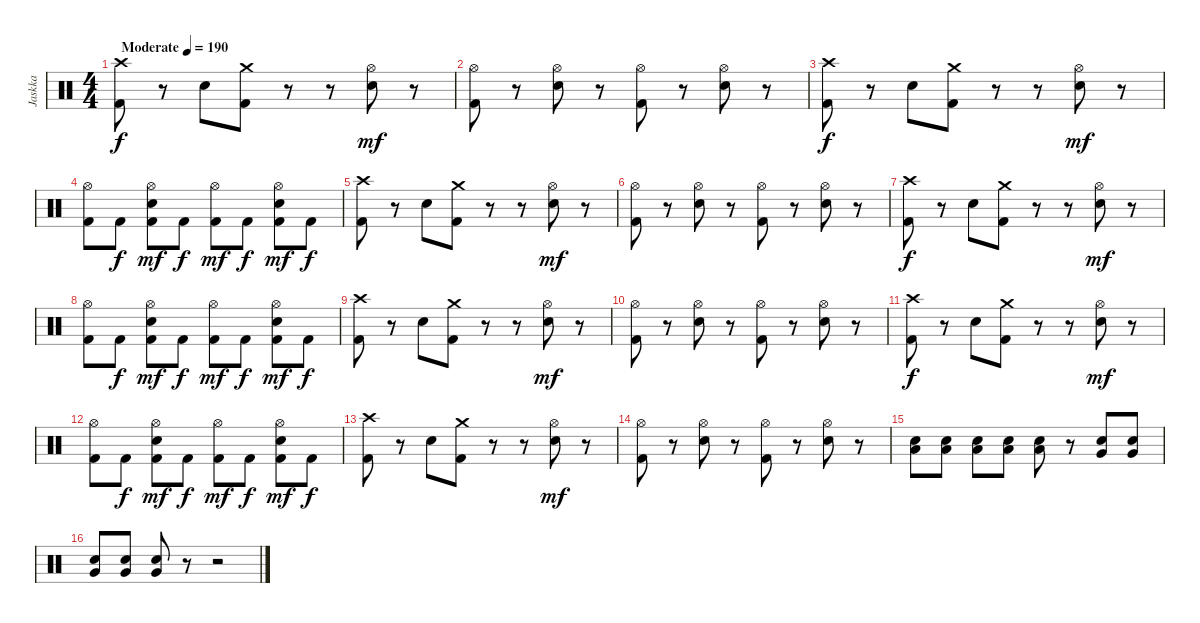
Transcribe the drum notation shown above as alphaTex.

\track ("Jaskka" "Jaskka") {instrument percussion}
\staff {score}
\articulation defaults
\ts (4 4)
\tempo (190 "Moderate")
\clef neutral
\ks c
("Crash high (hit)" "Kick (hit) 2").8{dy f} r.8 "Snare (hit) 2".8 ("Crash medium (hit)" "Kick (hit) 2").8 r.8 r.8 ("Hi-Hat (open)" "Snare (hit) 2").8{dy mf} r.8 |
("Hi-Hat (open)" "Kick (hit) 2").8 r.8 ("Hi-Hat (open)" "Snare (hit) 2").8 r.8 ("Hi-Hat (open)" "Kick (hit) 2").8 r.8 ("Hi-Hat (open)" "Snare (hit) 2").8 r.8 |
("Crash high (hit)" "Kick (hit) 2").8{dy f} r.8 "Snare (hit) 2".8 ("Crash medium (hit)" "Kick (hit) 2").8 r.8 r.8 ("Hi-Hat (open)" "Snare (hit) 2").8{dy mf} r.8 |
("Hi-Hat (open)" "Kick (hit) 2").8 "Kick (hit) 2".8{dy f} ("Hi-Hat (open)" "Snare (hit) 2" "Kick (hit) 2").8{dy mf} "Kick (hit) 2".8{dy f} ("Hi-Hat (open)" "Kick (hit) 2").8{dy mf} "Kick (hit) 2".8{dy f} ("Hi-Hat (open)" "Snare (hit) 2" "Kick (hit) 2").8{dy mf} "Kick (hit) 2".8{dy f} |
("Crash high (hit)" "Kick (hit) 2").8 r.8 "Snare (hit) 2".8 ("Crash medium (hit)" "Kick (hit) 2").8 r.8 r.8 ("Hi-Hat (open)" "Snare (hit) 2").8{dy mf} r.8 |
("Hi-Hat (open)" "Kick (hit) 2").8 r.8 ("Hi-Hat (open)" "Snare (hit) 2").8 r.8 ("Hi-Hat (open)" "Kick (hit) 2").8 r.8 ("Hi-Hat (open)" "Snare (hit) 2").8 r.8 |
("Crash high (hit)" "Kick (hit) 2").8{dy f} r.8 "Snare (hit) 2".8 ("Crash medium (hit)" "Kick (hit) 2").8 r.8 r.8 ("Hi-Hat (open)" "Snare (hit) 2").8{dy mf} r.8 |
("Hi-Hat (open)" "Kick (hit) 2").8 "Kick (hit) 2".8{dy f} ("Hi-Hat (open)" "Snare (hit) 2" "Kick (hit) 2").8{dy mf} "Kick (hit) 2".8{dy f} ("Hi-Hat (open)" "Kick (hit) 2").8{dy mf} "Kick (hit) 2".8{dy f} ("Hi-Hat (open)" "Snare (hit) 2" "Kick (hit) 2").8{dy mf} "Kick (hit) 2".8{dy f} |
("Crash high (hit)" "Kick (hit) 2").8 r.8 "Snare (hit) 2".8 ("Crash medium (hit)" "Kick (hit) 2").8 r.8 r.8 ("Hi-Hat (open)" "Snare (hit) 2").8{dy mf} r.8 |
("Hi-Hat (open)" "Kick (hit) 2").8 r.8 ("Hi-Hat (open)" "Snare (hit) 2").8 r.8 ("Hi-Hat (open)" "Kick (hit) 2").8 r.8 ("Hi-Hat (open)" "Snare (hit) 2").8 r.8 |
("Crash high (hit)" "Kick (hit) 2").8{dy f} r.8 "Snare (hit) 2".8 ("Crash medium (hit)" "Kick (hit) 2").8 r.8 r.8 ("Hi-Hat (open)" "Snare (hit) 2").8{dy mf} r.8 |
("Hi-Hat (open)" "Kick (hit) 2").8 "Kick (hit) 2".8{dy f} ("Hi-Hat (open)" "Snare (hit) 2" "Kick (hit) 2").8{dy mf} "Kick (hit) 2".8{dy f} ("Hi-Hat (open)" "Kick (hit) 2").8{dy mf} "Kick (hit) 2".8{dy f} ("Hi-Hat (open)" "Snare (hit) 2" "Kick (hit) 2").8{dy mf} "Kick (hit) 2".8{dy f} |
("Crash high (hit)" "Kick (hit) 2").8 r.8 "Snare (hit) 2".8 ("Crash medium (hit)" "Kick (hit) 2").8 r.8 r.8 ("Hi-Hat (open)" "Snare (hit) 2").8{dy mf} r.8 |
("Hi-Hat (open)" "Kick (hit) 2").8 r.8 ("Hi-Hat (open)" "Snare (hit) 2").8 r.8 ("Hi-Hat (open)" "Kick (hit) 2").8 r.8 ("Hi-Hat (open)" "Snare (hit) 2").8 r.8 |
("Snare (hit) 2" "Low Tom (hit)").8 ("Snare (hit) 2" "Low Tom (hit)").8 ("Snare (hit) 2" "Low Tom (hit)").8 ("Snare (hit) 2" "Low Tom (hit)").8 ("Snare (hit) 2" "Low Tom (hit)").8 r.8 ("Snare (hit) 2" "Very Low Tom (hit)").8 ("Snare (hit) 2" "Very Low Tom (hit)").8 |
("Snare (hit) 2" "Very Low Tom (hit)").8 ("Snare (hit) 2" "Very Low Tom (hit)").8 ("Snare (hit) 2" "Very Low Tom (hit)").8 r.8 r.2
